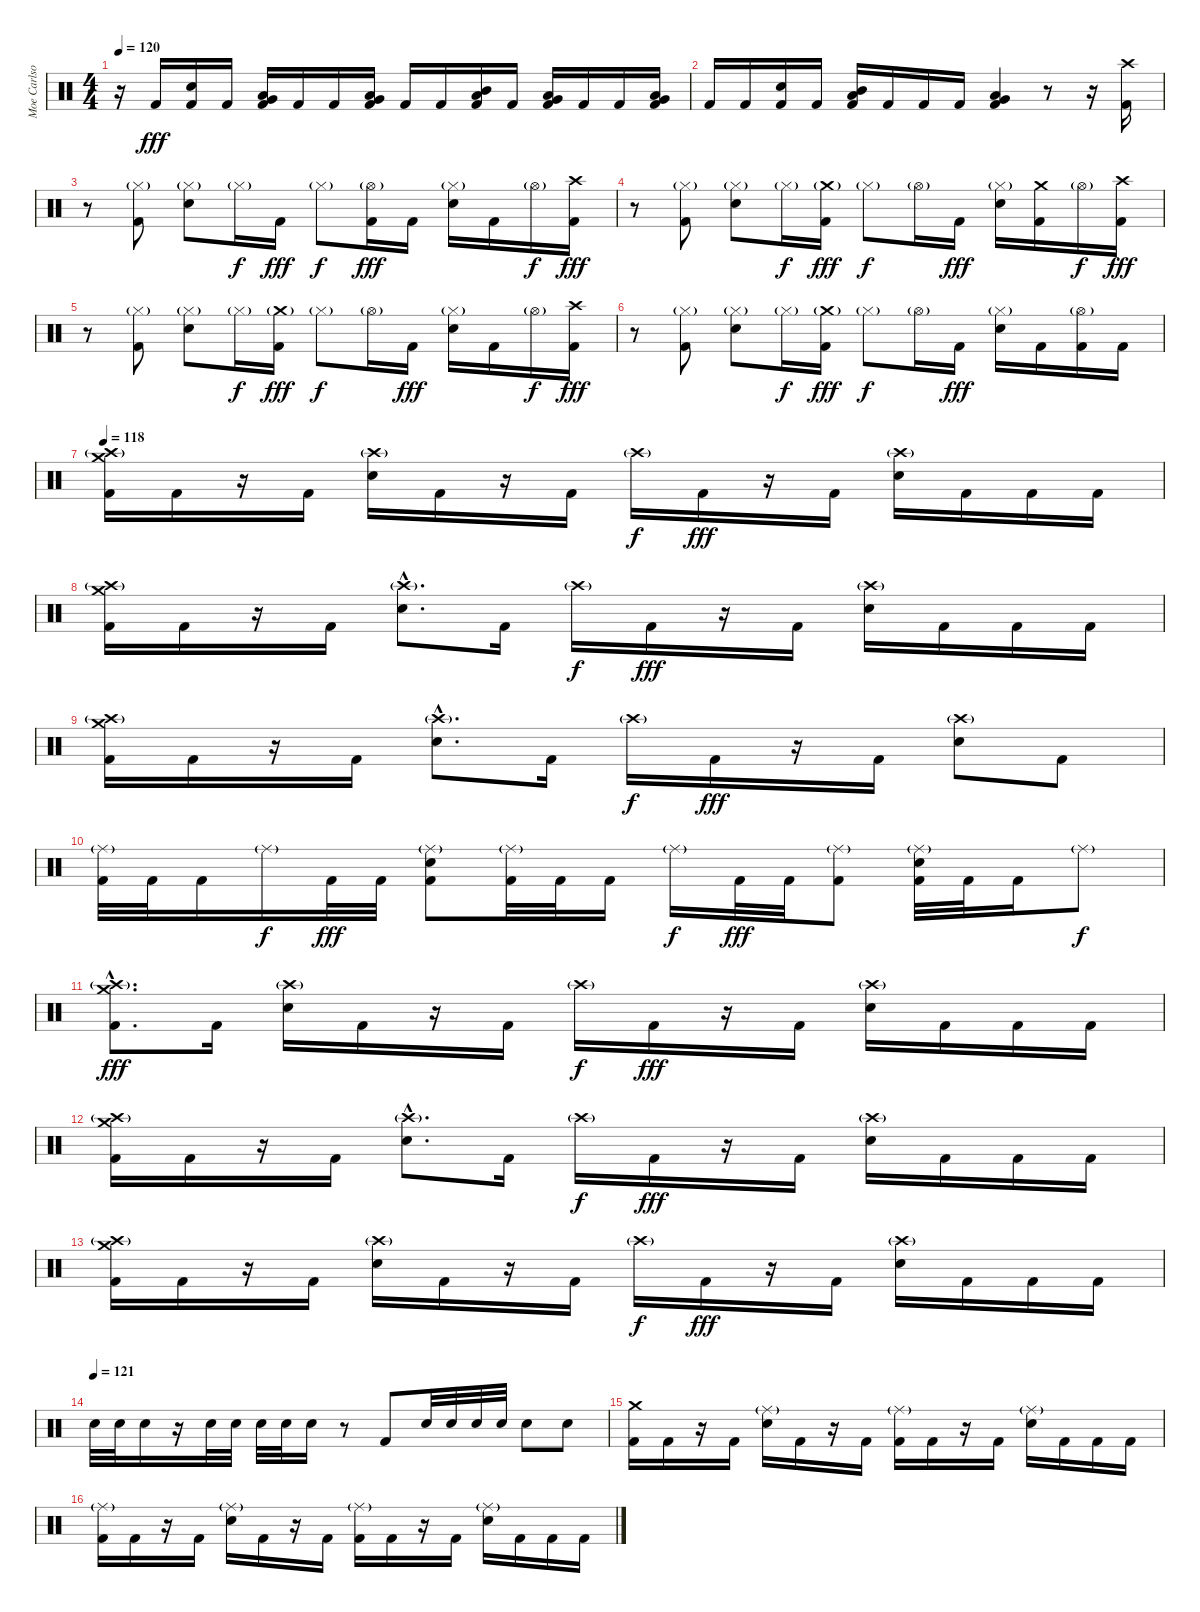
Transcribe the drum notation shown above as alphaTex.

\track ("Moe Carlson" "Moe Carlso") {instrument percussion}
\staff {score}
\articulation defaults
\ts (4 4)
\tempo 120
\clef neutral
\ks c
r.16{dy fff} "Kick (hit) 2".16 ("Electric Snare (hit)" "Kick (hit) 2").16 "Kick (hit) 2".16 ("Low Tom (hit)" "Very Low Tom (hit)" "Kick (hit) 2").16 "Kick (hit) 2".16 "Kick (hit) 2".16 ("Very Low Tom (hit)" "Low Floor Tom (hit)" "Kick (hit) 2").16 "Kick (hit) 2".16 "Kick (hit) 2".16 ("Mid Tom (hit)" "Low Tom (hit)" "Kick (hit) 2").16 "Kick (hit) 2".16 ("Low Tom (hit)" "Very Low Tom (hit)" "Kick (hit) 2").16 "Kick (hit) 2".16 "Kick (hit) 2".16 ("Very Low Tom (hit)" "Low Floor Tom (hit)" "Kick (hit) 2").16 |
"Kick (hit) 2".16 "Kick (hit) 2".16 ("Electric Snare (hit)" "Kick (hit) 2").16 "Kick (hit) 2".16 ("Mid Tom (hit)" "Low Tom (hit)" "Kick (hit) 2").16 "Kick (hit) 2".16 "Kick (hit) 2".16 "Kick (hit) 2".16 ("Very Low Tom (hit)" "Low Floor Tom (hit)" "Kick (hit) 2").4 r.8 r.16 ("Crash high (hit)" "Kick (hit) 2").16 |
r.8 ("Hi-Hat (closed)"{g} "Kick (hit) 2").8 ("Hi-Hat (closed)"{g} "Electric Snare (hit)").8 "Hi-Hat (closed)"{g}.16{dy f} "Kick (hit) 2".16{dy fff} "Hi-Hat (closed)"{g}.8{dy f} ("Hi-Hat (open)"{g} "Kick (hit) 2").16{dy fff} "Kick (hit) 2".16 ("Hi-Hat (closed)"{g} "Electric Snare (hit)").16 "Kick (hit) 2".16 "Hi-Hat (open)"{g}.16{dy f} ("Crash high (hit)" "Kick (hit) 2").16{dy fff} |
r.8 ("Hi-Hat (closed)"{g} "Kick (hit) 2").8 ("Hi-Hat (closed)"{g} "Electric Snare (hit)").8 "Hi-Hat (closed)"{g}.16{dy f} ("Crash medium (hit)"{g} "Kick (hit) 2").16{dy fff} "Hi-Hat (closed)"{g}.8{dy f} "Hi-Hat (open)"{g}.16 "Kick (hit) 2".16{dy fff} ("Hi-Hat (closed)"{g} "Electric Snare (hit)").16 ("Crash medium (hit)" "Kick (hit) 2").16 "Hi-Hat (open)"{g}.16{dy f} ("Crash high (hit)" "Kick (hit) 2").16{dy fff} |
r.8 ("Hi-Hat (closed)"{g} "Kick (hit) 2").8 ("Hi-Hat (closed)"{g} "Electric Snare (hit)").8 "Hi-Hat (closed)"{g}.16{dy f} ("Crash medium (hit)"{g} "Kick (hit) 2").16{dy fff} "Hi-Hat (closed)"{g}.8{dy f} "Hi-Hat (open)"{g}.16 "Kick (hit) 2".16{dy fff} ("Hi-Hat (closed)"{g} "Electric Snare (hit)").16 "Kick (hit) 2".16 "Hi-Hat (open)"{g}.16{dy f} ("Crash high (hit)" "Kick (hit) 2").16{dy fff} |
r.8 ("Hi-Hat (closed)"{g} "Kick (hit) 2").8 ("Hi-Hat (closed)"{g} "Electric Snare (hit)").8 "Hi-Hat (closed)"{g}.16{dy f} ("Crash medium (hit)"{g} "Kick (hit) 2").16{dy fff} "Hi-Hat (closed)"{g}.8{dy f} "Hi-Hat (open)"{g}.16 "Kick (hit) 2".16{dy fff} ("Hi-Hat (closed)"{g} "Electric Snare (hit)").16 "Kick (hit) 2".16 ("Hi-Hat (open)"{g} "Kick (hit) 2").16 "Kick (hit) 2".16 |
\tempo 118
("Crash high (hit)"{g} "Crash medium (hit)" "Kick (hit) 2").16 "Kick (hit) 2".16 r.16 "Kick (hit) 2".16 ("Crash high (hit)"{g} "Electric Snare (hit)").16 "Kick (hit) 2".16 r.16 "Kick (hit) 2".16 "Crash high (hit)"{g}.16{dy f} "Kick (hit) 2".16{dy fff} r.16 "Kick (hit) 2".16 ("Crash high (hit)"{g} "Electric Snare (hit)").16 "Kick (hit) 2".16 "Kick (hit) 2".16 "Kick (hit) 2".16 |
("Crash high (hit)"{g} "Crash medium (hit)" "Kick (hit) 2").16 "Kick (hit) 2".16 r.16 "Kick (hit) 2".16 ("Crash high (hit)"{g hac} "Electric Snare (hit)"{hac}).8{d} "Kick (hit) 2".16 "Crash high (hit)"{g}.16{dy f} "Kick (hit) 2".16{dy fff} r.16 "Kick (hit) 2".16 ("Crash high (hit)"{g} "Electric Snare (hit)").16 "Kick (hit) 2".16 "Kick (hit) 2".16 "Kick (hit) 2".16 |
("Crash high (hit)"{g} "Crash medium (hit)" "Kick (hit) 2").16 "Kick (hit) 2".16 r.16 "Kick (hit) 2".16 ("Crash high (hit)"{g hac} "Electric Snare (hit)"{hac}).8{d} "Kick (hit) 2".16 "Crash high (hit)"{g}.16{dy f} "Kick (hit) 2".16{dy fff} r.16 "Kick (hit) 2".16 ("Crash high (hit)"{g} "Electric Snare (hit)").8 "Kick (hit) 2".8 |
("Ride (middle)"{g} "Kick (hit) 2").32 "Kick (hit) 2".32 "Kick (hit) 2".16 "Ride (middle)"{g}.16{dy f} "Kick (hit) 2".32{dy fff} "Kick (hit) 2".32 ("Ride (middle)"{g} "Electric Snare (hit)" "Kick (hit) 2").8 ("Ride (middle)"{g} "Kick (hit) 2").32 "Kick (hit) 2".32 "Kick (hit) 2".16 "Ride (middle)"{g}.16{dy f} "Kick (hit) 2".32{dy fff} "Kick (hit) 2".32 ("Ride (middle)"{g} "Kick (hit) 2").8 ("Ride (middle)"{g} "Electric Snare (hit)" "Kick (hit) 2").32 "Kick (hit) 2".32 "Kick (hit) 2".16 "Ride (middle)"{g}.8{dy f} |
("Crash high (hit)"{g hac} "Crash medium (hit)"{hac} "Kick (hit) 2"{hac}).8{d dy fff} "Kick (hit) 2".16 ("Crash high (hit)"{g} "Electric Snare (hit)").16 "Kick (hit) 2".16 r.16 "Kick (hit) 2".16 "Crash high (hit)"{g}.16{dy f} "Kick (hit) 2".16{dy fff} r.16 "Kick (hit) 2".16 ("Crash high (hit)"{g} "Electric Snare (hit)").16 "Kick (hit) 2".16 "Kick (hit) 2".16 "Kick (hit) 2".16 |
("Crash high (hit)"{g} "Crash medium (hit)" "Kick (hit) 2").16 "Kick (hit) 2".16 r.16 "Kick (hit) 2".16 ("Crash high (hit)"{g hac} "Electric Snare (hit)"{hac}).8{d} "Kick (hit) 2".16 "Crash high (hit)"{g}.16{dy f} "Kick (hit) 2".16{dy fff} r.16 "Kick (hit) 2".16 ("Crash high (hit)"{g} "Electric Snare (hit)").16 "Kick (hit) 2".16 "Kick (hit) 2".16 "Kick (hit) 2".16 |
("Crash high (hit)"{g} "Crash medium (hit)" "Kick (hit) 2").16 "Kick (hit) 2".16 r.16 "Kick (hit) 2".16 ("Crash high (hit)"{g} "Electric Snare (hit)").16 "Kick (hit) 2".16 r.16 "Kick (hit) 2".16 "Crash high (hit)"{g}.16{dy f} "Kick (hit) 2".16{dy fff} r.16 "Kick (hit) 2".16 ("Crash high (hit)"{g} "Electric Snare (hit)").16 "Kick (hit) 2".16 "Kick (hit) 2".16 "Kick (hit) 2".16 |
\tempo (121)
"Electric Snare (hit)".32 "Electric Snare (hit)".32 "Electric Snare (hit)".16 r.16 "Electric Snare (hit)".32 "Electric Snare (hit)".32 "Electric Snare (hit)".32 "Electric Snare (hit)".32 "Electric Snare (hit)".16 r.8 "Kick (hit) 2".8 "Electric Snare (hit)".32 "Electric Snare (hit)".32 "Electric Snare (hit)".32 "Electric Snare (hit)".32 "Electric Snare (hit)".8 "Electric Snare (hit)".8 |
("Crash medium (hit)" "Kick (hit) 2").16 "Kick (hit) 2".16 r.16 "Kick (hit) 2".16 ("Ride (middle)"{g} "Electric Snare (hit)").16 "Kick (hit) 2".16 r.16 "Kick (hit) 2".16 ("Ride (middle)"{g} "Kick (hit) 2").16 "Kick (hit) 2".16 r.16 "Kick (hit) 2".16 ("Ride (middle)"{g} "Electric Snare (hit)").16 "Kick (hit) 2".16 "Kick (hit) 2".16 "Kick (hit) 2".16 |
("Ride (middle)"{g} "Kick (hit) 2").16 "Kick (hit) 2".16 r.16 "Kick (hit) 2".16 ("Ride (middle)"{g} "Electric Snare (hit)").16 "Kick (hit) 2".16 r.16 "Kick (hit) 2".16 ("Ride (middle)"{g} "Kick (hit) 2").16 "Kick (hit) 2".16 r.16 "Kick (hit) 2".16 ("Ride (middle)"{g} "Electric Snare (hit)").16 "Kick (hit) 2".16 "Kick (hit) 2".16 "Kick (hit) 2".16
